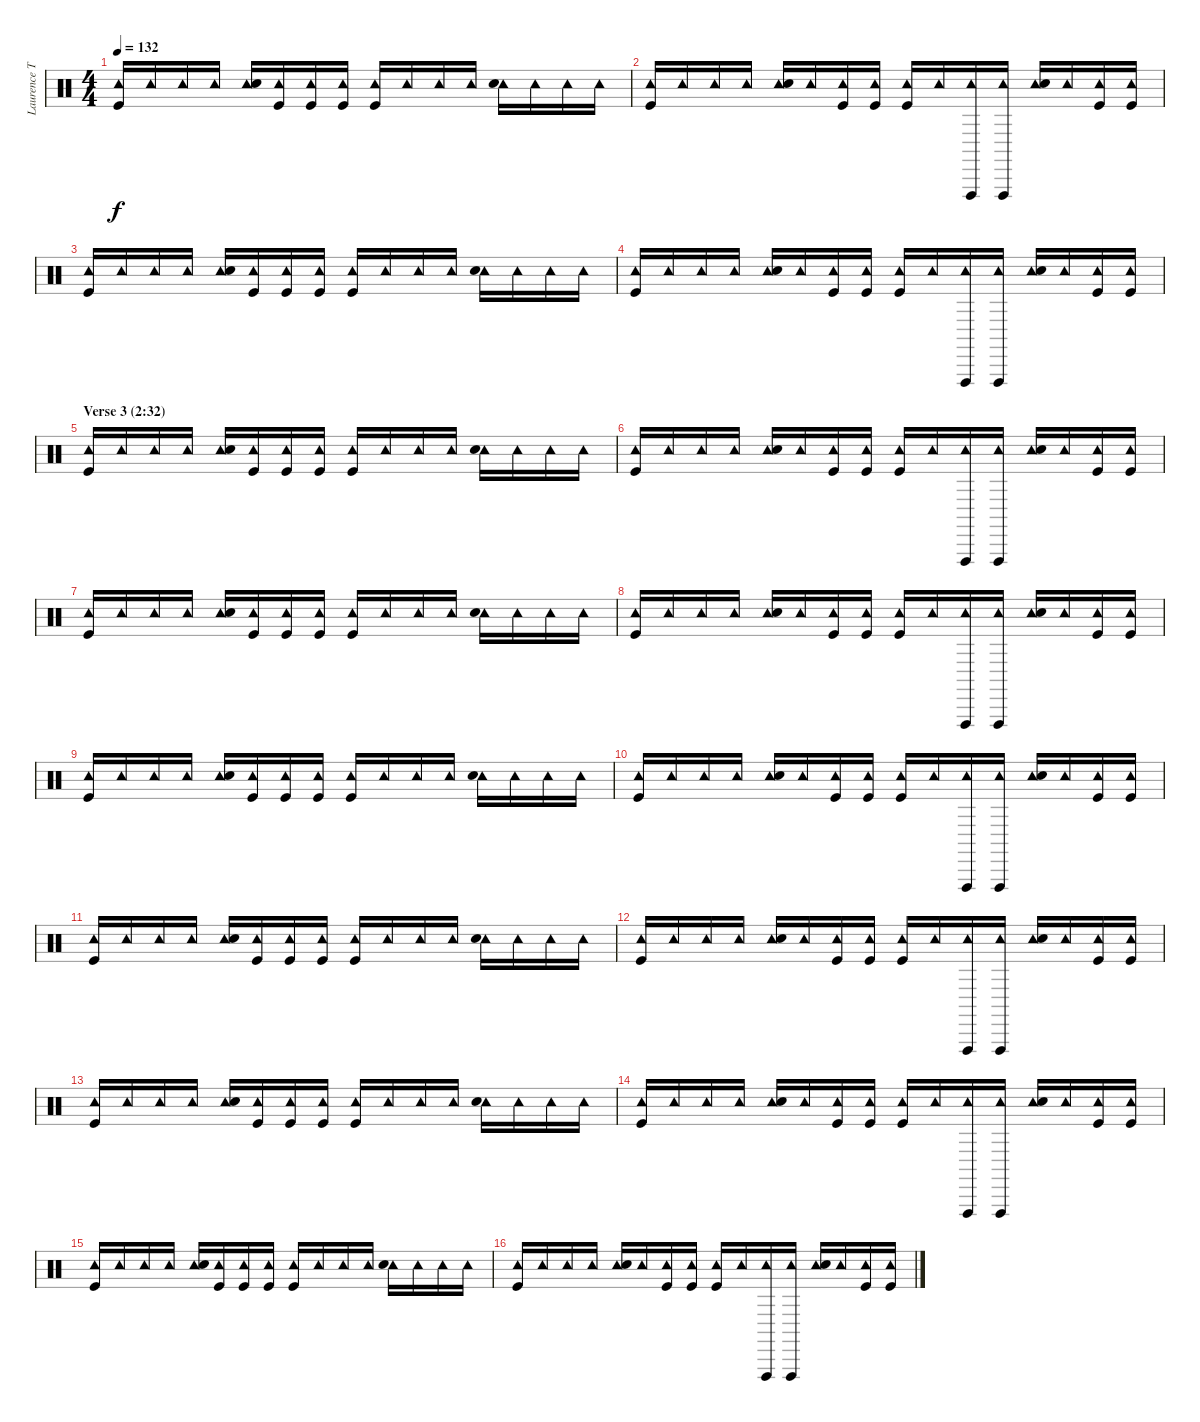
\track ("Laurence Tolhurst (drums)" "Laurence T") {instrument percussion}
\staff {score}
\articulation defaults
\ts (4 4)
\tempo 132
\clef neutral
\ks c
("Tambourine (hit)" "Kick (hit)").16{dy f} "Tambourine (hit)".16 "Tambourine (hit)".16 "Tambourine (hit)".16 ("Tambourine (hit)" "Snare (hit) 2").16 ("Tambourine (hit)" "Kick (hit)").16 ("Tambourine (hit)" "Kick (hit)").16 ("Tambourine (hit)" "Kick (hit)").16 ("Tambourine (hit)" "Kick (hit)").16 "Tambourine (hit)".16 "Tambourine (hit)".16 "Tambourine (hit)".16 ("Tambourine (hit)" "Snare (hit) 2").16 "Tambourine (hit)".16 "Tambourine (hit)".16 "Tambourine (hit)".16 |
("Tambourine (hit)" "Kick (hit)").16 "Tambourine (hit)".16 "Tambourine (hit)".16 "Tambourine (hit)".16 ("Tambourine (hit)" "Snare (hit) 2").16 "Tambourine (hit)".16 ("Tambourine (hit)" "Kick (hit)").16 ("Tambourine (hit)" "Kick (hit)").16 ("Tambourine (hit)" "Kick (hit)").16 "Tambourine (hit)".16 ("Tambourine (hit)" "Vibraslap (hit)").16 ("Tambourine (hit)" "Vibraslap (hit)").16 ("Tambourine (hit)" "Snare (hit) 2").16 "Tambourine (hit)".16 ("Tambourine (hit)" "Kick (hit)").16 ("Tambourine (hit)" "Kick (hit)").16 |
("Tambourine (hit)" "Kick (hit)").16 "Tambourine (hit)".16 "Tambourine (hit)".16 "Tambourine (hit)".16 ("Tambourine (hit)" "Snare (hit) 2").16 ("Tambourine (hit)" "Kick (hit)").16 ("Tambourine (hit)" "Kick (hit)").16 ("Tambourine (hit)" "Kick (hit)").16 ("Tambourine (hit)" "Kick (hit)").16 "Tambourine (hit)".16 "Tambourine (hit)".16 "Tambourine (hit)".16 ("Tambourine (hit)" "Snare (hit) 2").16 "Tambourine (hit)".16 "Tambourine (hit)".16 "Tambourine (hit)".16 |
("Tambourine (hit)" "Kick (hit)").16 "Tambourine (hit)".16 "Tambourine (hit)".16 "Tambourine (hit)".16 ("Tambourine (hit)" "Snare (hit) 2").16 "Tambourine (hit)".16 ("Tambourine (hit)" "Kick (hit)").16 ("Tambourine (hit)" "Kick (hit)").16 ("Tambourine (hit)" "Kick (hit)").16 "Tambourine (hit)".16 ("Tambourine (hit)" "Vibraslap (hit)").16 ("Tambourine (hit)" "Vibraslap (hit)").16 ("Tambourine (hit)" "Snare (hit) 2").16 "Tambourine (hit)".16 ("Tambourine (hit)" "Kick (hit)").16 ("Tambourine (hit)" "Kick (hit)").16 |
\section ("" "Verse 3 (2:32)")
("Tambourine (hit)" "Kick (hit)").16 "Tambourine (hit)".16 "Tambourine (hit)".16 "Tambourine (hit)".16 ("Tambourine (hit)" "Snare (hit) 2").16 ("Tambourine (hit)" "Kick (hit)").16 ("Tambourine (hit)" "Kick (hit)").16 ("Tambourine (hit)" "Kick (hit)").16 ("Tambourine (hit)" "Kick (hit)").16 "Tambourine (hit)".16 "Tambourine (hit)".16 "Tambourine (hit)".16 ("Tambourine (hit)" "Snare (hit) 2").16 "Tambourine (hit)".16 "Tambourine (hit)".16 "Tambourine (hit)".16 |
("Tambourine (hit)" "Kick (hit)").16 "Tambourine (hit)".16 "Tambourine (hit)".16 "Tambourine (hit)".16 ("Tambourine (hit)" "Snare (hit) 2").16 "Tambourine (hit)".16 ("Tambourine (hit)" "Kick (hit)").16 ("Tambourine (hit)" "Kick (hit)").16 ("Tambourine (hit)" "Kick (hit)").16 "Tambourine (hit)".16 ("Tambourine (hit)" "Vibraslap (hit)").16 ("Tambourine (hit)" "Vibraslap (hit)").16 ("Tambourine (hit)" "Snare (hit) 2").16 "Tambourine (hit)".16 ("Tambourine (hit)" "Kick (hit)").16 ("Tambourine (hit)" "Kick (hit)").16 |
("Tambourine (hit)" "Kick (hit)").16 "Tambourine (hit)".16 "Tambourine (hit)".16 "Tambourine (hit)".16 ("Tambourine (hit)" "Snare (hit) 2").16 ("Tambourine (hit)" "Kick (hit)").16 ("Tambourine (hit)" "Kick (hit)").16 ("Tambourine (hit)" "Kick (hit)").16 ("Tambourine (hit)" "Kick (hit)").16 "Tambourine (hit)".16 "Tambourine (hit)".16 "Tambourine (hit)".16 ("Tambourine (hit)" "Snare (hit) 2").16 "Tambourine (hit)".16 "Tambourine (hit)".16 "Tambourine (hit)".16 |
("Tambourine (hit)" "Kick (hit)").16 "Tambourine (hit)".16 "Tambourine (hit)".16 "Tambourine (hit)".16 ("Tambourine (hit)" "Snare (hit) 2").16 "Tambourine (hit)".16 ("Tambourine (hit)" "Kick (hit)").16 ("Tambourine (hit)" "Kick (hit)").16 ("Tambourine (hit)" "Kick (hit)").16 "Tambourine (hit)".16 ("Tambourine (hit)" "Vibraslap (hit)").16 ("Tambourine (hit)" "Vibraslap (hit)").16 ("Tambourine (hit)" "Snare (hit) 2").16 "Tambourine (hit)".16 ("Tambourine (hit)" "Kick (hit)").16 ("Tambourine (hit)" "Kick (hit)").16 |
("Tambourine (hit)" "Kick (hit)").16 "Tambourine (hit)".16 "Tambourine (hit)".16 "Tambourine (hit)".16 ("Tambourine (hit)" "Snare (hit) 2").16 ("Tambourine (hit)" "Kick (hit)").16 ("Tambourine (hit)" "Kick (hit)").16 ("Tambourine (hit)" "Kick (hit)").16 ("Tambourine (hit)" "Kick (hit)").16 "Tambourine (hit)".16 "Tambourine (hit)".16 "Tambourine (hit)".16 ("Tambourine (hit)" "Snare (hit) 2").16 "Tambourine (hit)".16 "Tambourine (hit)".16 "Tambourine (hit)".16 |
("Tambourine (hit)" "Kick (hit)").16 "Tambourine (hit)".16 "Tambourine (hit)".16 "Tambourine (hit)".16 ("Tambourine (hit)" "Snare (hit) 2").16 "Tambourine (hit)".16 ("Tambourine (hit)" "Kick (hit)").16 ("Tambourine (hit)" "Kick (hit)").16 ("Tambourine (hit)" "Kick (hit)").16 "Tambourine (hit)".16 ("Tambourine (hit)" "Vibraslap (hit)").16 ("Tambourine (hit)" "Vibraslap (hit)").16 ("Tambourine (hit)" "Snare (hit) 2").16 "Tambourine (hit)".16 ("Tambourine (hit)" "Kick (hit)").16 ("Tambourine (hit)" "Kick (hit)").16 |
("Tambourine (hit)" "Kick (hit)").16 "Tambourine (hit)".16 "Tambourine (hit)".16 "Tambourine (hit)".16 ("Tambourine (hit)" "Snare (hit) 2").16 ("Tambourine (hit)" "Kick (hit)").16 ("Tambourine (hit)" "Kick (hit)").16 ("Tambourine (hit)" "Kick (hit)").16 ("Tambourine (hit)" "Kick (hit)").16 "Tambourine (hit)".16 "Tambourine (hit)".16 "Tambourine (hit)".16 ("Tambourine (hit)" "Snare (hit) 2").16 "Tambourine (hit)".16 "Tambourine (hit)".16 "Tambourine (hit)".16 |
("Tambourine (hit)" "Kick (hit)").16 "Tambourine (hit)".16 "Tambourine (hit)".16 "Tambourine (hit)".16 ("Tambourine (hit)" "Snare (hit) 2").16 "Tambourine (hit)".16 ("Tambourine (hit)" "Kick (hit)").16 ("Tambourine (hit)" "Kick (hit)").16 ("Tambourine (hit)" "Kick (hit)").16 "Tambourine (hit)".16 ("Tambourine (hit)" "Vibraslap (hit)").16 ("Tambourine (hit)" "Vibraslap (hit)").16 ("Tambourine (hit)" "Snare (hit) 2").16 "Tambourine (hit)".16 ("Tambourine (hit)" "Kick (hit)").16 ("Tambourine (hit)" "Kick (hit)").16 |
("Tambourine (hit)" "Kick (hit)").16 "Tambourine (hit)".16 "Tambourine (hit)".16 "Tambourine (hit)".16 ("Tambourine (hit)" "Snare (hit) 2").16 ("Tambourine (hit)" "Kick (hit)").16 ("Tambourine (hit)" "Kick (hit)").16 ("Tambourine (hit)" "Kick (hit)").16 ("Tambourine (hit)" "Kick (hit)").16 "Tambourine (hit)".16 "Tambourine (hit)".16 "Tambourine (hit)".16 ("Tambourine (hit)" "Snare (hit) 2").16 "Tambourine (hit)".16 "Tambourine (hit)".16 "Tambourine (hit)".16 |
("Tambourine (hit)" "Kick (hit)").16 "Tambourine (hit)".16 "Tambourine (hit)".16 "Tambourine (hit)".16 ("Tambourine (hit)" "Snare (hit) 2").16 "Tambourine (hit)".16 ("Tambourine (hit)" "Kick (hit)").16 ("Tambourine (hit)" "Kick (hit)").16 ("Tambourine (hit)" "Kick (hit)").16 "Tambourine (hit)".16 ("Tambourine (hit)" "Vibraslap (hit)").16 ("Tambourine (hit)" "Vibraslap (hit)").16 ("Tambourine (hit)" "Snare (hit) 2").16 "Tambourine (hit)".16 ("Tambourine (hit)" "Kick (hit)").16 ("Tambourine (hit)" "Kick (hit)").16 |
("Tambourine (hit)" "Kick (hit)").16 "Tambourine (hit)".16 "Tambourine (hit)".16 "Tambourine (hit)".16 ("Tambourine (hit)" "Snare (hit) 2").16 ("Tambourine (hit)" "Kick (hit)").16 ("Tambourine (hit)" "Kick (hit)").16 ("Tambourine (hit)" "Kick (hit)").16 ("Tambourine (hit)" "Kick (hit)").16 "Tambourine (hit)".16 "Tambourine (hit)".16 "Tambourine (hit)".16 ("Tambourine (hit)" "Snare (hit) 2").16 "Tambourine (hit)".16 "Tambourine (hit)".16 "Tambourine (hit)".16 |
("Tambourine (hit)" "Kick (hit)").16 "Tambourine (hit)".16 "Tambourine (hit)".16 "Tambourine (hit)".16 ("Tambourine (hit)" "Snare (hit) 2").16 "Tambourine (hit)".16 ("Tambourine (hit)" "Kick (hit)").16 ("Tambourine (hit)" "Kick (hit)").16 ("Tambourine (hit)" "Kick (hit)").16 "Tambourine (hit)".16 ("Tambourine (hit)" "Vibraslap (hit)").16 ("Tambourine (hit)" "Vibraslap (hit)").16 ("Tambourine (hit)" "Snare (hit) 2").16 "Tambourine (hit)".16 ("Tambourine (hit)" "Kick (hit)").16 ("Tambourine (hit)" "Kick (hit)").16
